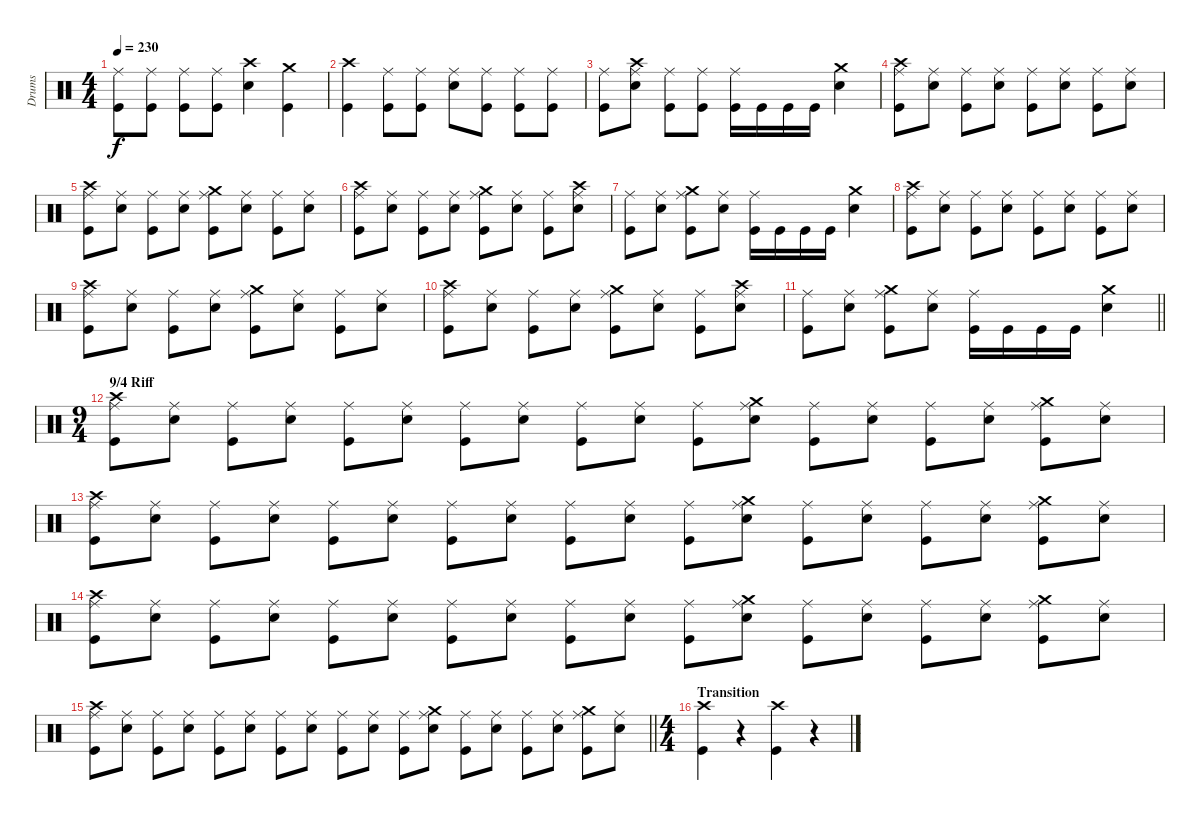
\track ("Drums" "Drums") {instrument percussion}
\staff {score}
\articulation defaults
\ts (4 4)
\tempo 230
\clef neutral
\ks c
("Ride (middle)" "Kick (hit)").8{dy f} ("Ride (middle)" "Kick (hit)").8 ("Ride (middle)" "Kick (hit)").8 ("Ride (middle)" "Kick (hit)").8 ("Crash high (hit)" "Electric Snare (hit)").4 ("Crash medium (hit)" "Kick (hit)").4 |
("Crash high (hit)" "Kick (hit)").4 ("Ride (middle)" "Kick (hit)").8 ("Ride (middle)" "Kick (hit)").8 ("Ride (middle)" "Electric Snare (hit)").8 ("Ride (middle)" "Kick (hit)").8 ("Ride (middle)" "Kick (hit)").8 ("Ride (middle)" "Kick (hit)").8 |
("Ride (middle)" "Kick (hit)").8 ("Crash high (hit)" "Ride (middle)" "Electric Snare (hit)").8 ("Ride (middle)" "Kick (hit)").8 ("Ride (middle)" "Kick (hit)").8 ("Ride (middle)" "Kick (hit)").16 "Kick (hit)".16 "Kick (hit)".16 "Kick (hit)".16 ("Crash medium (hit)" "Electric Snare (hit)").4 |
("Crash high (hit)" "Ride (middle)" "Kick (hit)").8 ("Ride (middle)" "Electric Snare (hit)").8 ("Ride (middle)" "Kick (hit)").8 ("Ride (middle)" "Electric Snare (hit)").8 ("Ride (middle)" "Kick (hit)").8 ("Ride (middle)" "Electric Snare (hit)").8 ("Ride (middle)" "Kick (hit)").8 ("Ride (middle)" "Electric Snare (hit)").8 |
("Crash high (hit)" "Ride (middle)" "Kick (hit)").8 ("Ride (middle)" "Electric Snare (hit)").8 ("Ride (middle)" "Kick (hit)").8 ("Ride (middle)" "Electric Snare (hit)").8 ("Crash medium (hit)" "Ride (middle)" "Kick (hit)").8 ("Ride (middle)" "Electric Snare (hit)").8 ("Ride (middle)" "Kick (hit)").8 ("Ride (middle)" "Electric Snare (hit)").8 |
("Crash high (hit)" "Ride (middle)" "Kick (hit)").8 ("Ride (middle)" "Electric Snare (hit)").8 ("Ride (middle)" "Kick (hit)").8 ("Ride (middle)" "Electric Snare (hit)").8 ("Crash medium (hit)" "Ride (middle)" "Kick (hit)").8 ("Ride (middle)" "Electric Snare (hit)").8 ("Ride (middle)" "Kick (hit)").8 ("Crash high (hit)" "Ride (middle)" "Electric Snare (hit)").8 |
("Ride (middle)" "Kick (hit)").8 ("Ride (middle)" "Electric Snare (hit)").8 ("Crash medium (hit)" "Ride (middle)" "Kick (hit)").8 ("Ride (middle)" "Electric Snare (hit)").8 ("Ride (middle)" "Kick (hit)").16 "Kick (hit)".16 "Kick (hit)".16 "Kick (hit)".16 ("Crash medium (hit)" "Electric Snare (hit)").4 |
("Crash high (hit)" "Ride (middle)" "Kick (hit)").8 ("Ride (middle)" "Electric Snare (hit)").8 ("Ride (middle)" "Kick (hit)").8 ("Ride (middle)" "Electric Snare (hit)").8 ("Ride (middle)" "Kick (hit)").8 ("Ride (middle)" "Electric Snare (hit)").8 ("Ride (middle)" "Kick (hit)").8 ("Ride (middle)" "Electric Snare (hit)").8 |
("Crash high (hit)" "Ride (middle)" "Kick (hit)").8 ("Ride (middle)" "Electric Snare (hit)").8 ("Ride (middle)" "Kick (hit)").8 ("Ride (middle)" "Electric Snare (hit)").8 ("Crash medium (hit)" "Ride (middle)" "Kick (hit)").8 ("Ride (middle)" "Electric Snare (hit)").8 ("Ride (middle)" "Kick (hit)").8 ("Ride (middle)" "Electric Snare (hit)").8 |
("Crash high (hit)" "Ride (middle)" "Kick (hit)").8 ("Ride (middle)" "Electric Snare (hit)").8 ("Ride (middle)" "Kick (hit)").8 ("Ride (middle)" "Electric Snare (hit)").8 ("Crash medium (hit)" "Ride (middle)" "Kick (hit)").8 ("Ride (middle)" "Electric Snare (hit)").8 ("Ride (middle)" "Kick (hit)").8 ("Crash high (hit)" "Ride (middle)" "Electric Snare (hit)").8 |
\barLineRight lightlight
("Ride (middle)" "Kick (hit)").8 ("Ride (middle)" "Electric Snare (hit)").8 ("Crash medium (hit)" "Ride (middle)" "Kick (hit)").8 ("Ride (middle)" "Electric Snare (hit)").8 ("Ride (middle)" "Kick (hit)").16 "Kick (hit)".16 "Kick (hit)".16 "Kick (hit)".16 ("Crash medium (hit)" "Electric Snare (hit)").4 |
\ts (9 4)
\section ("" "9/4 Riff")
("Crash high (hit)" "Ride (middle)" "Kick (hit)").8 ("Ride (middle)" "Electric Snare (hit)").8 ("Ride (middle)" "Kick (hit)").8 ("Ride (middle)" "Electric Snare (hit)").8 ("Ride (middle)" "Kick (hit)").8 ("Ride (middle)" "Electric Snare (hit)").8 ("Ride (middle)" "Kick (hit)").8 ("Ride (middle)" "Electric Snare (hit)").8 ("Ride (middle)" "Kick (hit)").8 ("Ride (middle)" "Electric Snare (hit)").8 ("Ride (middle)" "Kick (hit)").8 ("Crash medium (hit)" "Ride (middle)" "Electric Snare (hit)").8 ("Ride (middle)" "Kick (hit)").8 ("Ride (middle)" "Electric Snare (hit)").8 ("Ride (middle)" "Kick (hit)").8 ("Ride (middle)" "Electric Snare (hit)").8 ("Crash medium (hit)" "Ride (middle)" "Kick (hit)").8 ("Ride (middle)" "Electric Snare (hit)").8 |
("Crash high (hit)" "Ride (middle)" "Kick (hit)").8 ("Ride (middle)" "Electric Snare (hit)").8 ("Ride (middle)" "Kick (hit)").8 ("Ride (middle)" "Electric Snare (hit)").8 ("Ride (middle)" "Kick (hit)").8 ("Ride (middle)" "Electric Snare (hit)").8 ("Ride (middle)" "Kick (hit)").8 ("Ride (middle)" "Electric Snare (hit)").8 ("Ride (middle)" "Kick (hit)").8 ("Ride (middle)" "Electric Snare (hit)").8 ("Ride (middle)" "Kick (hit)").8 ("Crash medium (hit)" "Ride (middle)" "Electric Snare (hit)").8 ("Ride (middle)" "Kick (hit)").8 ("Ride (middle)" "Electric Snare (hit)").8 ("Ride (middle)" "Kick (hit)").8 ("Ride (middle)" "Electric Snare (hit)").8 ("Crash medium (hit)" "Ride (middle)" "Kick (hit)").8 ("Ride (middle)" "Electric Snare (hit)").8 |
("Crash high (hit)" "Ride (middle)" "Kick (hit)").8 ("Ride (middle)" "Electric Snare (hit)").8 ("Ride (middle)" "Kick (hit)").8 ("Ride (middle)" "Electric Snare (hit)").8 ("Ride (middle)" "Kick (hit)").8 ("Ride (middle)" "Electric Snare (hit)").8 ("Ride (middle)" "Kick (hit)").8 ("Ride (middle)" "Electric Snare (hit)").8 ("Ride (middle)" "Kick (hit)").8 ("Ride (middle)" "Electric Snare (hit)").8 ("Ride (middle)" "Kick (hit)").8 ("Crash medium (hit)" "Ride (middle)" "Electric Snare (hit)").8 ("Ride (middle)" "Kick (hit)").8 ("Ride (middle)" "Electric Snare (hit)").8 ("Ride (middle)" "Kick (hit)").8 ("Ride (middle)" "Electric Snare (hit)").8 ("Crash medium (hit)" "Ride (middle)" "Kick (hit)").8 ("Ride (middle)" "Electric Snare (hit)").8 |
\barLineRight lightlight
("Crash high (hit)" "Ride (middle)" "Kick (hit)").8 ("Ride (middle)" "Electric Snare (hit)").8 ("Ride (middle)" "Kick (hit)").8 ("Ride (middle)" "Electric Snare (hit)").8 ("Ride (middle)" "Kick (hit)").8 ("Ride (middle)" "Electric Snare (hit)").8 ("Ride (middle)" "Kick (hit)").8 ("Ride (middle)" "Electric Snare (hit)").8 ("Ride (middle)" "Kick (hit)").8 ("Ride (middle)" "Electric Snare (hit)").8 ("Ride (middle)" "Kick (hit)").8 ("Crash medium (hit)" "Ride (middle)" "Electric Snare (hit)").8 ("Ride (middle)" "Kick (hit)").8 ("Ride (middle)" "Electric Snare (hit)").8 ("Ride (middle)" "Kick (hit)").8 ("Ride (middle)" "Electric Snare (hit)").8 ("Crash medium (hit)" "Ride (middle)" "Kick (hit)").8 ("Ride (middle)" "Electric Snare (hit)").8 |
\ts (4 4)
\section ("" "Transition")
("Crash high (hit)" "Kick (hit)").4 r.4 ("Crash high (hit)" "Kick (hit)").4 r.4
